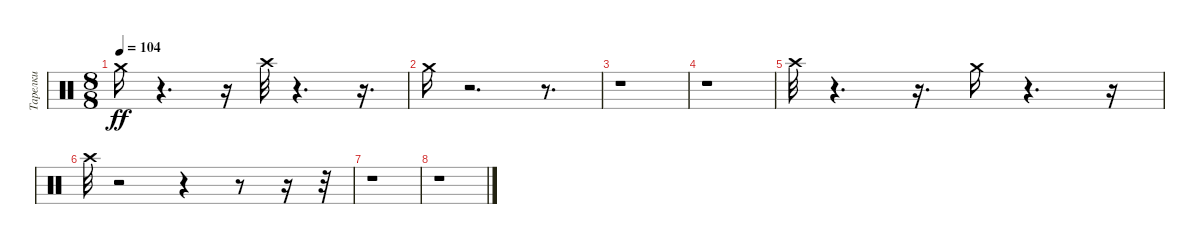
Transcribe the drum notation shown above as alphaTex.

\track ("Тарелки" "Тарелки") {instrument percussion}
\staff {score}
\articulation defaults
\ts (8 8)
\tempo 104
\clef neutral
\ks c "Crash medium (hit)".16{dy ff}
r.4{d} r.16 "Crash high (hit)".32 r.4{d} r.16{d} |
"Crash medium (hit)".16 r.2{d} r.8{d} |
r.1 |
r.1 |
"Crash high (hit)".32 r.4{d} r.16{d} "Crash medium (hit)".16 r.4{d} r.16 |
"Crash high (hit)".32 r.2 r.4 r.8 r.16 r.32 |
r.1 |
r.1
